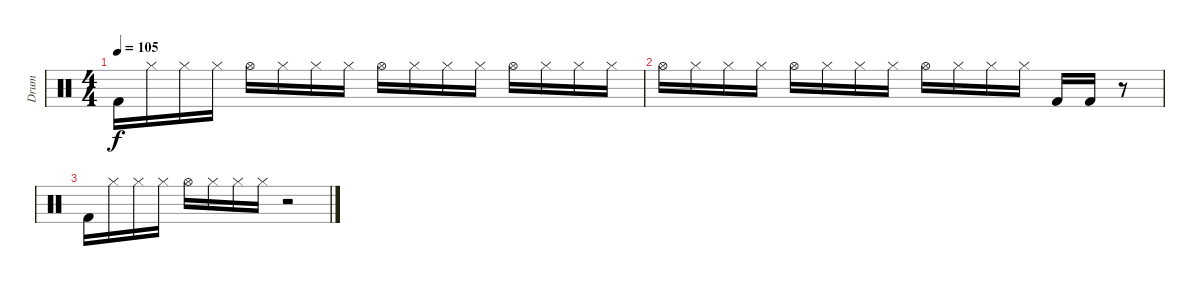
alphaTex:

\track ("Drum" "Drum") {instrument percussion}
\staff {score}
\articulation defaults
\ts (4 4)
\tempo 105
\clef neutral
\ks c "Kick (hit) 2".16{dy f} "Hi-Hat (closed)".16 "Hi-Hat (closed)".16 "Hi-Hat (closed)".16 "Hi-Hat (open)".16 "Hi-Hat (closed)".16 "Hi-Hat (closed)".16 "Hi-Hat (closed)".16 "Hi-Hat (open)".16 "Hi-Hat (closed)".16 "Hi-Hat (closed)".16 "Hi-Hat (closed)".16 "Hi-Hat (open)".16 "Hi-Hat (closed)".16 "Hi-Hat (closed)".16 "Hi-Hat (closed)".16
|
"Hi-Hat (open)".16 "Hi-Hat (closed)".16 "Hi-Hat (closed)".16 "Hi-Hat (closed)".16 "Hi-Hat (open)".16 "Hi-Hat (closed)".16 "Hi-Hat (closed)".16 "Hi-Hat (closed)".16 "Hi-Hat (open)".16 "Hi-Hat (closed)".16 "Hi-Hat (closed)".16 "Hi-Hat (closed)".16 "Kick (hit) 2".16 "Kick (hit) 2".16 r.8 |
"Kick (hit) 2".16 "Hi-Hat (closed)".16 "Hi-Hat (closed)".16 "Hi-Hat (closed)".16 "Hi-Hat (open)".16 "Hi-Hat (closed)".16 "Hi-Hat (closed)".16 "Hi-Hat (closed)".16 r.2
